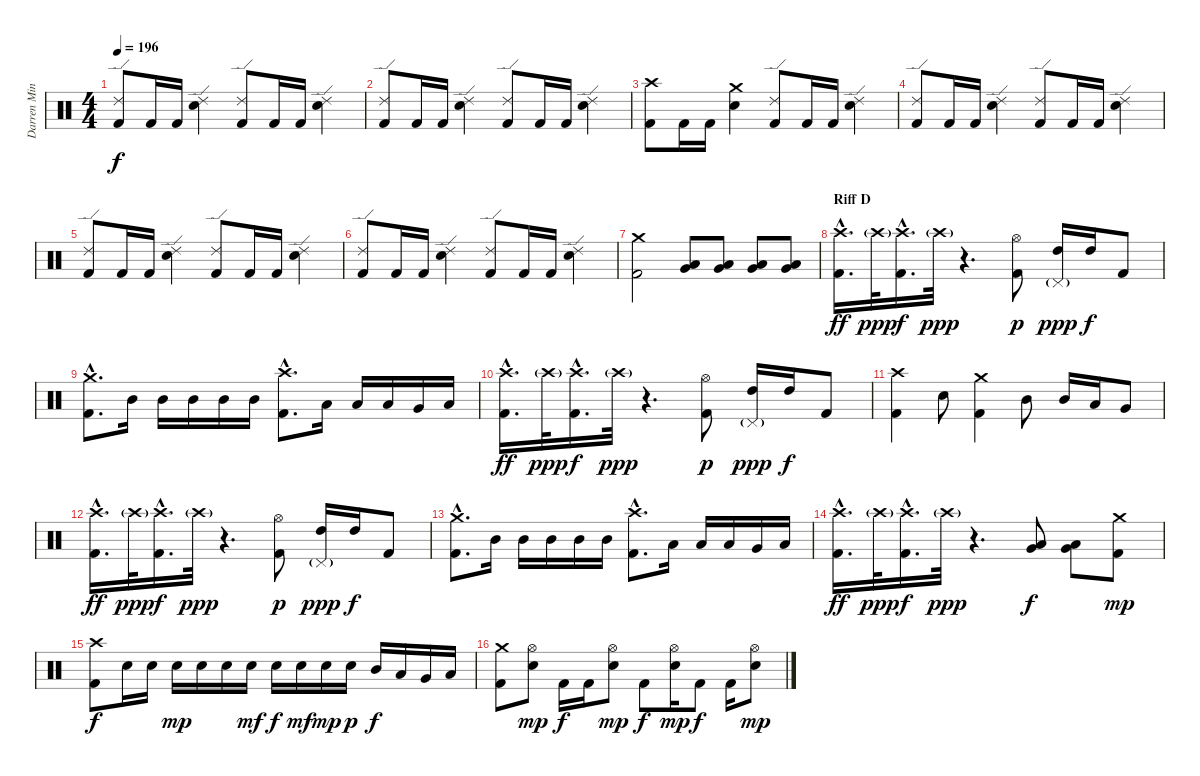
\track ("Darren Minter" "Darren Min") {instrument percussion}
\staff {score}
\articulation defaults
\ts (4 4)
\tempo 196
\clef neutral
\ks c
("Kick (hit) 2" "Ride (edge) 2").8{dy f} "Kick (hit) 2".16 "Kick (hit) 2".16 ("Ride (edge) 2" "Snare (hit) 2").4 ("Kick (hit) 2" "Ride (edge) 2").8 "Kick (hit) 2".16 "Kick (hit) 2".16 ("Ride (edge) 2" "Snare (hit) 2").4 |
("Kick (hit) 2" "Ride (edge) 2").8 "Kick (hit) 2".16 "Kick (hit) 2".16 ("Ride (edge) 2" "Snare (hit) 2").4 ("Kick (hit) 2" "Ride (edge) 2").8 "Kick (hit) 2".16 "Kick (hit) 2".16 ("Ride (edge) 2" "Snare (hit) 2").4 |
("Kick (hit) 2" "Crash high (hit)").8 "Kick (hit) 2".16 "Kick (hit) 2".16 ("Crash medium (hit)" "Snare (hit) 2").4 ("Kick (hit) 2" "Ride (edge) 2").8 "Kick (hit) 2".16 "Kick (hit) 2".16 ("Ride (edge) 2" "Snare (hit) 2").4 |
("Kick (hit) 2" "Ride (edge) 2").8 "Kick (hit) 2".16 "Kick (hit) 2".16 ("Ride (edge) 2" "Snare (hit) 2").4 ("Kick (hit) 2" "Ride (edge) 2").8 "Kick (hit) 2".16 "Kick (hit) 2".16 ("Ride (edge) 2" "Snare (hit) 2").4 |
("Kick (hit) 2" "Ride (edge) 2").8 "Kick (hit) 2".16 "Kick (hit) 2".16 ("Ride (edge) 2" "Snare (hit) 2").4 ("Kick (hit) 2" "Ride (edge) 2").8 "Kick (hit) 2".16 "Kick (hit) 2".16 ("Ride (edge) 2" "Snare (hit) 2").4 |
("Kick (hit) 2" "Ride (edge) 2").8 "Kick (hit) 2".16 "Kick (hit) 2".16 ("Ride (edge) 2" "Snare (hit) 2").4 ("Kick (hit) 2" "Ride (edge) 2").8 "Kick (hit) 2".16 "Kick (hit) 2".16 ("Ride (edge) 2" "Snare (hit) 2").4 |
("Kick (hit) 2" "Crash medium (hit)").2 ("Low Tom (hit)" "Very Low Tom (hit)").8 ("Low Tom (hit)" "Very Low Tom (hit)").8 ("Low Tom (hit)" "Very Low Tom (hit)").8 ("Low Tom (hit)" "Very Low Tom (hit)").8 |
\section ("" "Riff D")
("Kick (hit) 2"{hac} "Crash high (hit)"{hac}).16{d dy ff} "Crash high (hit)"{g}.32{dy ppp} ("Kick (hit) 2"{hac} "Crash high (hit)"{hac}).16{d dy f} "Crash high (hit)"{g}.32{dy ppp} r.4{d} ("Kick (hit) 2" "Hi-Hat (open)").8{dy p} ("Pedal Hi-Hat (hit)"{g} "High Tom (hit)").16{dy ppp} "High Tom (hit)".16{dy f} "Kick (hit) 2".8 |
("Kick (hit) 2"{hac} "Crash medium (hit)"{hac}).8{d} "Mid Tom (hit)".16 "Mid Tom (hit)".16 "Mid Tom (hit)".16 "Mid Tom (hit)".16 "Mid Tom (hit)".16 ("Kick (hit) 2"{hac} "Crash high (hit)"{hac}).8{d} "Low Tom (hit)".16 "Low Tom (hit)".16 "Low Tom (hit)".16 "Very Low Tom (hit)".16 "Low Floor Tom (hit)".16 |
("Kick (hit) 2"{hac} "Crash high (hit)"{hac}).16{d dy ff} "Crash high (hit)"{g}.32{dy ppp} ("Kick (hit) 2"{hac} "Crash high (hit)"{hac}).16{d dy f} "Crash high (hit)"{g}.32{dy ppp} r.4{d} ("Kick (hit) 2" "Hi-Hat (open)").8{dy p} ("Pedal Hi-Hat (hit)"{g} "High Tom (hit)").16{dy ppp} "High Tom (hit)".16{dy f} "Kick (hit) 2".8 |
("Kick (hit) 2" "Crash high (hit)").4 "Snare (hit) 2".8 ("Kick (hit) 2" "Crash medium (hit)").4 "Mid Tom (hit)".8 "Mid Tom (hit)".16 "Low Tom (hit)".16 "Very Low Tom (hit)".8 |
("Kick (hit) 2"{hac} "Crash high (hit)"{hac}).16{d dy ff} "Crash high (hit)"{g}.32{dy ppp} ("Kick (hit) 2"{hac} "Crash high (hit)"{hac}).16{d dy f} "Crash high (hit)"{g}.32{dy ppp} r.4{d} ("Kick (hit) 2" "Hi-Hat (open)").8{dy p} ("Pedal Hi-Hat (hit)"{g} "High Tom (hit)").16{dy ppp} "High Tom (hit)".16{dy f} "Kick (hit) 2".8 |
("Kick (hit) 2"{hac} "Crash medium (hit)"{hac}).8{d} "Mid Tom (hit)".16 "Mid Tom (hit)".16 "Mid Tom (hit)".16 "Mid Tom (hit)".16 "Mid Tom (hit)".16 ("Kick (hit) 2"{hac} "Crash high (hit)"{hac}).8{d} "Low Tom (hit)".16 "Low Tom (hit)".16 "Low Tom (hit)".16 "Very Low Tom (hit)".16 "Low Floor Tom (hit)".16 |
("Kick (hit) 2"{hac} "Crash high (hit)"{hac}).16{d dy ff} "Crash high (hit)"{g}.32{dy ppp} ("Kick (hit) 2"{hac} "Crash high (hit)"{hac}).16{d dy f} "Crash high (hit)"{g}.32{dy ppp} r.4{d} ("Low Tom (hit)" "Very Low Tom (hit)").8{dy f} ("Low Tom (hit)" "Very Low Tom (hit)").8 ("Kick (hit) 2" "Crash medium (hit)").8{dy mp} |
("Kick (hit) 2" "Crash high (hit)").8{dy f} "Snare (hit) 2".16 "Snare (hit) 2".16 "Snare (hit) 2".16{dy mp} "Snare (hit) 2".16 "Snare (hit) 2".16 "Snare (hit) 2".16{dy mf} "Snare (hit) 2".16{dy f} "Snare (hit) 2".16{dy mf} "Snare (hit) 2".16{dy mp} "Snare (hit) 2".16{dy p} "Mid Tom (hit)".16{dy f} "Low Tom (hit)".16 "Very Low Tom (hit)".16 "Low Floor Tom (hit)".16 |
("Kick (hit) 2" "Crash medium (hit)").8 ("Hi-Hat (open)" "Snare (hit) 2").8{dy mp} "Kick (hit) 2".16{dy f} "Kick (hit) 2".16 ("Hi-Hat (open)" "Snare (hit) 2").8{dy mp} "Kick (hit) 2".8{dy f} ("Hi-Hat (open)" "Snare (hit) 2").16{dy mp} "Kick (hit) 2".8{dy f} "Kick (hit) 2".16 ("Hi-Hat (open)" "Snare (hit) 2").8{dy mp}
